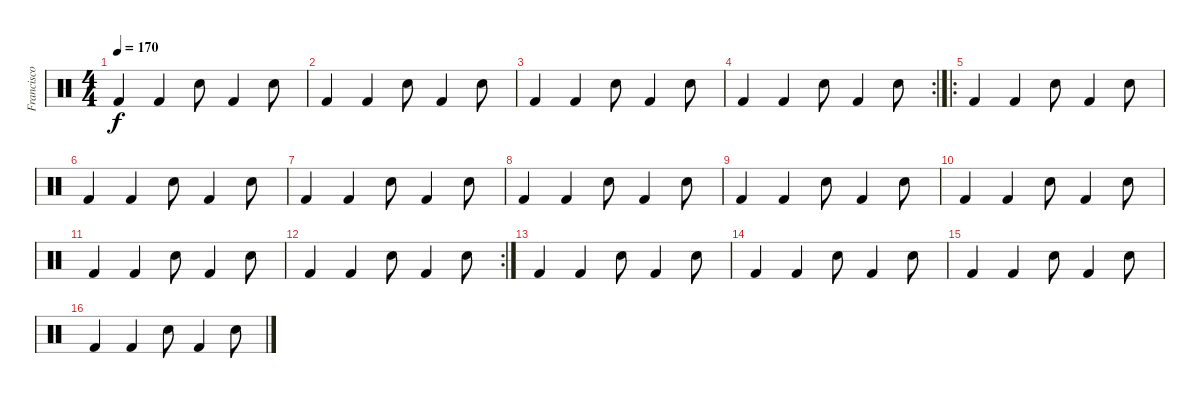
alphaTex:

\track ("Francisco (batería)" "Francisco ") {instrument percussion}
\staff {score}
\articulation defaults
\ts (4 4)
\tempo 170
\clef neutral
\ks c "Kick (hit) 2".4{dy f} "Kick (hit) 2".4 "Hand Clap (hit)".8 "Kick (hit) 2".4 "Hand Clap (hit)".8
|
"Kick (hit) 2".4 "Kick (hit) 2".4 "Hand Clap (hit)".8 "Kick (hit) 2".4 "Hand Clap (hit)".8 |
"Kick (hit) 2".4 "Kick (hit) 2".4 "Hand Clap (hit)".8 "Kick (hit) 2".4 "Hand Clap (hit)".8 |
\rc 2 "Kick (hit) 2".4 "Kick (hit) 2".4 "Hand Clap (hit)".8 "Kick (hit) 2".4 "Hand Clap (hit)".8
|
\ro "Kick (hit) 2".4 "Kick (hit) 2".4 "Hand Clap (hit)".8 "Kick (hit) 2".4 "Hand Clap (hit)".8
|
"Kick (hit) 2".4 "Kick (hit) 2".4 "Hand Clap (hit)".8 "Kick (hit) 2".4 "Hand Clap (hit)".8 |
"Kick (hit) 2".4 "Kick (hit) 2".4 "Hand Clap (hit)".8 "Kick (hit) 2".4 "Hand Clap (hit)".8 |
"Kick (hit) 2".4 "Kick (hit) 2".4 "Hand Clap (hit)".8 "Kick (hit) 2".4 "Hand Clap (hit)".8 |
"Kick (hit) 2".4 "Kick (hit) 2".4 "Hand Clap (hit)".8 "Kick (hit) 2".4 "Hand Clap (hit)".8 |
"Kick (hit) 2".4 "Kick (hit) 2".4 "Hand Clap (hit)".8 "Kick (hit) 2".4 "Hand Clap (hit)".8 |
"Kick (hit) 2".4 "Kick (hit) 2".4 "Hand Clap (hit)".8 "Kick (hit) 2".4 "Hand Clap (hit)".8 |
\rc 2 "Kick (hit) 2".4 "Kick (hit) 2".4 "Hand Clap (hit)".8 "Kick (hit) 2".4 "Hand Clap (hit)".8
|
"Kick (hit) 2".4 "Kick (hit) 2".4 "Hand Clap (hit)".8 "Kick (hit) 2".4 "Hand Clap (hit)".8 |
"Kick (hit) 2".4 "Kick (hit) 2".4 "Hand Clap (hit)".8 "Kick (hit) 2".4 "Hand Clap (hit)".8 |
"Kick (hit) 2".4 "Kick (hit) 2".4 "Hand Clap (hit)".8 "Kick (hit) 2".4 "Hand Clap (hit)".8 |
"Kick (hit) 2".4 "Kick (hit) 2".4 "Hand Clap (hit)".8 "Kick (hit) 2".4 "Hand Clap (hit)".8
